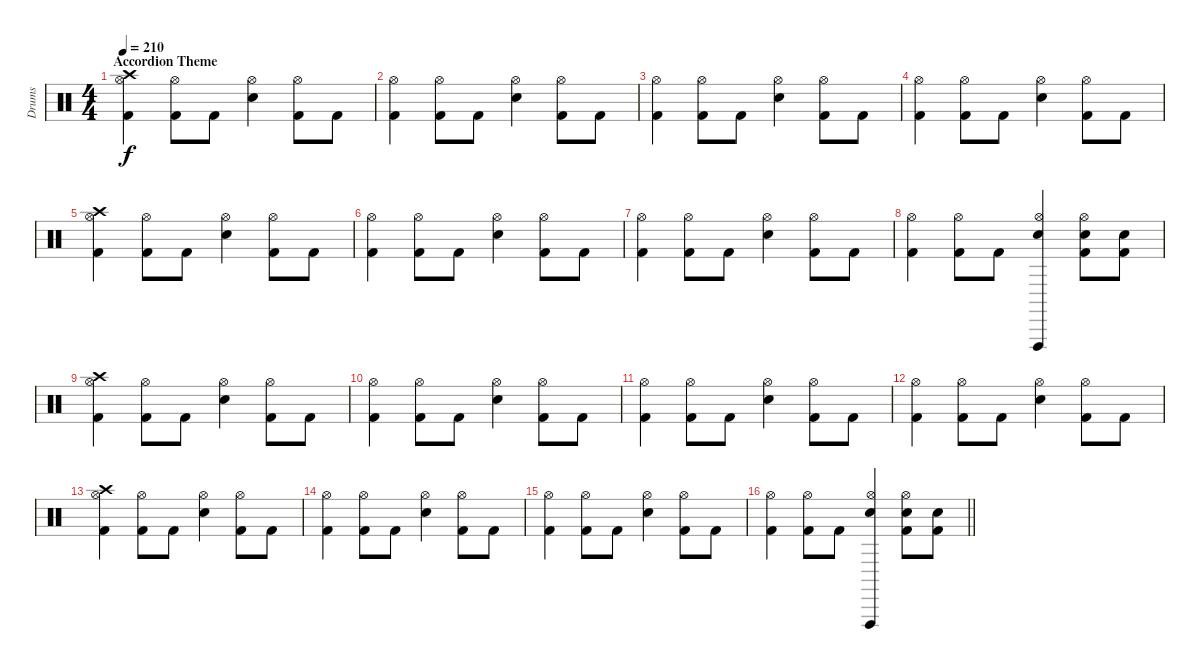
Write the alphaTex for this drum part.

\track ("Drums" "Drums") {instrument percussion}
\staff {score}
\articulation defaults
\ts (4 4)
\section ("" "Accordion Theme")
\tempo 210
\clef neutral
\ks c
("Crash high (hit)" "Hi-Hat (open)" "Kick (hit) 2").4{dy f} ("Hi-Hat (open)" "Kick (hit) 2").8 "Kick (hit) 2".8 ("Hi-Hat (open)" "Snare (hit) 2").4 ("Hi-Hat (open)" "Kick (hit) 2").8 "Kick (hit) 2".8 |
("Hi-Hat (open)" "Kick (hit) 2").4 ("Hi-Hat (open)" "Kick (hit) 2").8 "Kick (hit) 2".8 ("Hi-Hat (open)" "Snare (hit) 2").4 ("Hi-Hat (open)" "Kick (hit) 2").8 "Kick (hit) 2".8 |
("Hi-Hat (open)" "Kick (hit) 2").4 ("Hi-Hat (open)" "Kick (hit) 2").8 "Kick (hit) 2".8 ("Hi-Hat (open)" "Snare (hit) 2").4 ("Hi-Hat (open)" "Kick (hit) 2").8 "Kick (hit) 2".8 |
("Hi-Hat (open)" "Kick (hit) 2").4 ("Hi-Hat (open)" "Kick (hit) 2").8 "Kick (hit) 2".8 ("Hi-Hat (open)" "Snare (hit) 2").4 ("Hi-Hat (open)" "Kick (hit) 2").8 "Kick (hit) 2".8 |
("Crash high (hit)" "Hi-Hat (open)" "Kick (hit) 2").4 ("Hi-Hat (open)" "Kick (hit) 2").8 "Kick (hit) 2".8 ("Hi-Hat (open)" "Snare (hit) 2").4 ("Hi-Hat (open)" "Kick (hit) 2").8 "Kick (hit) 2".8 |
("Hi-Hat (open)" "Kick (hit) 2").4 ("Hi-Hat (open)" "Kick (hit) 2").8 "Kick (hit) 2".8 ("Hi-Hat (open)" "Snare (hit) 2").4 ("Hi-Hat (open)" "Kick (hit) 2").8 "Kick (hit) 2".8 |
("Hi-Hat (open)" "Kick (hit) 2").4 ("Hi-Hat (open)" "Kick (hit) 2").8 "Kick (hit) 2".8 ("Hi-Hat (open)" "Snare (hit) 2").4 ("Hi-Hat (open)" "Kick (hit) 2").8 "Kick (hit) 2".8 |
("Hi-Hat (open)" "Kick (hit) 2").4 ("Hi-Hat (open)" "Kick (hit) 2").8 "Kick (hit) 2".8 ("Vibraslap (hit)" "Hi-Hat (open)" "Snare (hit) 2").4 ("Hi-Hat (open)" "Snare (hit) 2" "Kick (hit) 2").8 ("Snare (hit) 2" "Kick (hit) 2").8 |
("Crash high (hit)" "Hi-Hat (open)" "Kick (hit) 2").4 ("Hi-Hat (open)" "Kick (hit) 2").8 "Kick (hit) 2".8 ("Hi-Hat (open)" "Snare (hit) 2").4 ("Hi-Hat (open)" "Kick (hit) 2").8 "Kick (hit) 2".8 |
("Hi-Hat (open)" "Kick (hit) 2").4 ("Hi-Hat (open)" "Kick (hit) 2").8 "Kick (hit) 2".8 ("Hi-Hat (open)" "Snare (hit) 2").4 ("Hi-Hat (open)" "Kick (hit) 2").8 "Kick (hit) 2".8 |
("Hi-Hat (open)" "Kick (hit) 2").4 ("Hi-Hat (open)" "Kick (hit) 2").8 "Kick (hit) 2".8 ("Hi-Hat (open)" "Snare (hit) 2").4 ("Hi-Hat (open)" "Kick (hit) 2").8 "Kick (hit) 2".8 |
("Hi-Hat (open)" "Kick (hit) 2").4 ("Hi-Hat (open)" "Kick (hit) 2").8 "Kick (hit) 2".8 ("Hi-Hat (open)" "Snare (hit) 2").4 ("Hi-Hat (open)" "Kick (hit) 2").8 "Kick (hit) 2".8 |
("Crash high (hit)" "Hi-Hat (open)" "Kick (hit) 2").4 ("Hi-Hat (open)" "Kick (hit) 2").8 "Kick (hit) 2".8 ("Hi-Hat (open)" "Snare (hit) 2").4 ("Hi-Hat (open)" "Kick (hit) 2").8 "Kick (hit) 2".8 |
("Hi-Hat (open)" "Kick (hit) 2").4 ("Hi-Hat (open)" "Kick (hit) 2").8 "Kick (hit) 2".8 ("Hi-Hat (open)" "Snare (hit) 2").4 ("Hi-Hat (open)" "Kick (hit) 2").8 "Kick (hit) 2".8 |
("Hi-Hat (open)" "Kick (hit) 2").4 ("Hi-Hat (open)" "Kick (hit) 2").8 "Kick (hit) 2".8 ("Hi-Hat (open)" "Snare (hit) 2").4 ("Hi-Hat (open)" "Kick (hit) 2").8 "Kick (hit) 2".8 |
\barLineRight lightlight
("Hi-Hat (open)" "Kick (hit) 2").4 ("Hi-Hat (open)" "Kick (hit) 2").8 "Kick (hit) 2".8 ("Vibraslap (hit)" "Hi-Hat (open)" "Snare (hit) 2").4 ("Hi-Hat (open)" "Snare (hit) 2" "Kick (hit) 2").8 ("Snare (hit) 2" "Kick (hit) 2").8
